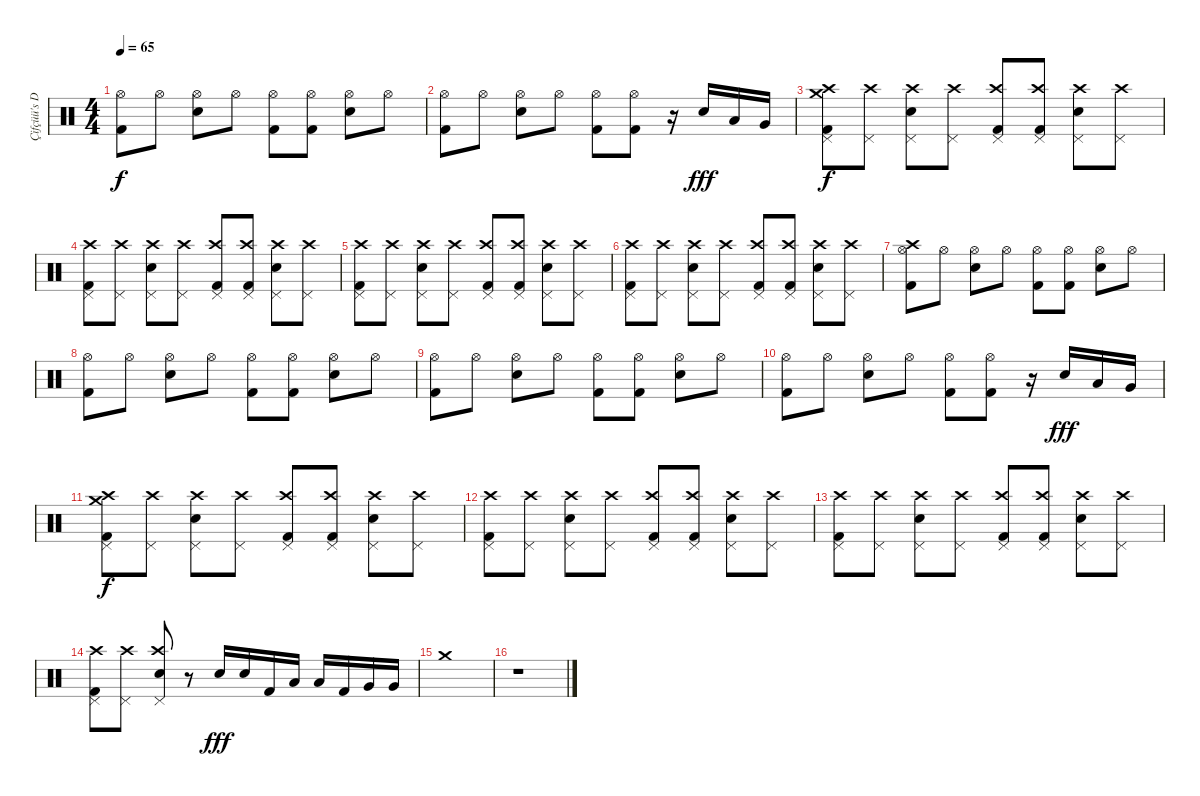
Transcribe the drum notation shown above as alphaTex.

\track ("Çifçüü's Drum" "Çifçüü's D") {instrument percussion}
\staff {score}
\articulation defaults
\ts (4 4)
\tempo 65
\clef neutral
\ks c
("Hi-Hat (open)" "Kick (hit) 2").8{dy f} "Hi-Hat (open)".8 ("Hi-Hat (open)" "Snare (hit) 2").8 "Hi-Hat (open)".8 ("Hi-Hat (open)" "Kick (hit) 2").8 ("Hi-Hat (open)" "Kick (hit) 2").8 ("Hi-Hat (open)" "Snare (hit) 2").8 "Hi-Hat (open)".8 |
("Hi-Hat (open)" "Kick (hit) 2").8 "Hi-Hat (open)".8 ("Hi-Hat (open)" "Snare (hit) 2").8 "Hi-Hat (open)".8 ("Hi-Hat (open)" "Kick (hit) 2").8 ("Hi-Hat (open)" "Kick (hit) 2").8 r.16 "Electric Snare (hit)".16{dy fff} "Low Tom (hit)".16 "Very Low Tom (hit)".16 |
("Crash high (hit)" "Crash medium (hit)" "Pedal Hi-Hat (hit)" "Kick (hit) 2").8{dy f} ("Crash high (hit)" "Pedal Hi-Hat (hit)").8 ("Crash high (hit)" "Pedal Hi-Hat (hit)" "Snare (hit) 2").8 ("Crash high (hit)" "Pedal Hi-Hat (hit)").8 ("Crash high (hit)" "Pedal Hi-Hat (hit)" "Kick (hit) 2").8 ("Crash high (hit)" "Pedal Hi-Hat (hit)" "Kick (hit) 2").8 ("Crash high (hit)" "Pedal Hi-Hat (hit)" "Snare (hit) 2").8 ("Crash high (hit)" "Pedal Hi-Hat (hit)").8 |
("Crash high (hit)" "Pedal Hi-Hat (hit)" "Kick (hit) 2").8 ("Crash high (hit)" "Pedal Hi-Hat (hit)").8 ("Crash high (hit)" "Pedal Hi-Hat (hit)" "Snare (hit) 2").8 ("Crash high (hit)" "Pedal Hi-Hat (hit)").8 ("Crash high (hit)" "Pedal Hi-Hat (hit)" "Kick (hit) 2").8 ("Crash high (hit)" "Pedal Hi-Hat (hit)" "Kick (hit) 2").8 ("Crash high (hit)" "Pedal Hi-Hat (hit)" "Snare (hit) 2").8 ("Crash high (hit)" "Pedal Hi-Hat (hit)").8 |
("Crash high (hit)" "Pedal Hi-Hat (hit)" "Kick (hit) 2").8 ("Crash high (hit)" "Pedal Hi-Hat (hit)").8 ("Crash high (hit)" "Pedal Hi-Hat (hit)" "Snare (hit) 2").8 ("Crash high (hit)" "Pedal Hi-Hat (hit)").8 ("Crash high (hit)" "Pedal Hi-Hat (hit)" "Kick (hit) 2").8 ("Crash high (hit)" "Pedal Hi-Hat (hit)" "Kick (hit) 2").8 ("Crash high (hit)" "Pedal Hi-Hat (hit)" "Snare (hit) 2").8 ("Crash high (hit)" "Pedal Hi-Hat (hit)").8 |
("Crash high (hit)" "Pedal Hi-Hat (hit)" "Kick (hit) 2").8 ("Crash high (hit)" "Pedal Hi-Hat (hit)").8 ("Crash high (hit)" "Pedal Hi-Hat (hit)" "Snare (hit) 2").8 ("Crash high (hit)" "Pedal Hi-Hat (hit)").8 ("Crash high (hit)" "Pedal Hi-Hat (hit)" "Kick (hit) 2").8 ("Crash high (hit)" "Pedal Hi-Hat (hit)" "Kick (hit) 2").8 ("Crash high (hit)" "Pedal Hi-Hat (hit)" "Snare (hit) 2").8 ("Crash high (hit)" "Pedal Hi-Hat (hit)").8 |
("Crash high (hit)" "Hi-Hat (open)" "Kick (hit) 2").8 "Hi-Hat (open)".8 ("Hi-Hat (open)" "Snare (hit) 2").8 "Hi-Hat (open)".8 ("Hi-Hat (open)" "Kick (hit) 2").8 ("Hi-Hat (open)" "Kick (hit) 2").8 ("Hi-Hat (open)" "Snare (hit) 2").8 "Hi-Hat (open)".8 |
("Hi-Hat (open)" "Kick (hit) 2").8 "Hi-Hat (open)".8 ("Hi-Hat (open)" "Snare (hit) 2").8 "Hi-Hat (open)".8 ("Hi-Hat (open)" "Kick (hit) 2").8 ("Hi-Hat (open)" "Kick (hit) 2").8 ("Hi-Hat (open)" "Snare (hit) 2").8 "Hi-Hat (open)".8 |
("Hi-Hat (open)" "Kick (hit) 2").8 "Hi-Hat (open)".8 ("Hi-Hat (open)" "Snare (hit) 2").8 "Hi-Hat (open)".8 ("Hi-Hat (open)" "Kick (hit) 2").8 ("Hi-Hat (open)" "Kick (hit) 2").8 ("Hi-Hat (open)" "Snare (hit) 2").8 "Hi-Hat (open)".8 |
("Hi-Hat (open)" "Kick (hit) 2").8 "Hi-Hat (open)".8 ("Hi-Hat (open)" "Snare (hit) 2").8 "Hi-Hat (open)".8 ("Hi-Hat (open)" "Kick (hit) 2").8 ("Hi-Hat (open)" "Kick (hit) 2").8 r.16 "Electric Snare (hit)".16{dy fff} "Low Tom (hit)".16 "Very Low Tom (hit)".16 |
("Crash high (hit)" "Crash medium (hit)" "Pedal Hi-Hat (hit)" "Kick (hit) 2").8{dy f} ("Crash high (hit)" "Pedal Hi-Hat (hit)").8 ("Crash high (hit)" "Pedal Hi-Hat (hit)" "Snare (hit) 2").8 ("Crash high (hit)" "Pedal Hi-Hat (hit)").8 ("Crash high (hit)" "Pedal Hi-Hat (hit)" "Kick (hit) 2").8 ("Crash high (hit)" "Pedal Hi-Hat (hit)" "Kick (hit) 2").8 ("Crash high (hit)" "Pedal Hi-Hat (hit)" "Snare (hit) 2").8 ("Crash high (hit)" "Pedal Hi-Hat (hit)").8 |
("Crash high (hit)" "Pedal Hi-Hat (hit)" "Kick (hit) 2").8 ("Crash high (hit)" "Pedal Hi-Hat (hit)").8 ("Crash high (hit)" "Pedal Hi-Hat (hit)" "Snare (hit) 2").8 ("Crash high (hit)" "Pedal Hi-Hat (hit)").8 ("Crash high (hit)" "Pedal Hi-Hat (hit)" "Kick (hit) 2").8 ("Crash high (hit)" "Pedal Hi-Hat (hit)" "Kick (hit) 2").8 ("Crash high (hit)" "Pedal Hi-Hat (hit)" "Snare (hit) 2").8 ("Crash high (hit)" "Pedal Hi-Hat (hit)").8 |
("Crash high (hit)" "Pedal Hi-Hat (hit)" "Kick (hit) 2").8 ("Crash high (hit)" "Pedal Hi-Hat (hit)").8 ("Crash high (hit)" "Pedal Hi-Hat (hit)" "Snare (hit) 2").8 ("Crash high (hit)" "Pedal Hi-Hat (hit)").8 ("Crash high (hit)" "Pedal Hi-Hat (hit)" "Kick (hit) 2").8 ("Crash high (hit)" "Pedal Hi-Hat (hit)" "Kick (hit) 2").8 ("Crash high (hit)" "Pedal Hi-Hat (hit)" "Snare (hit) 2").8 ("Crash high (hit)" "Pedal Hi-Hat (hit)").8 |
("Crash high (hit)" "Pedal Hi-Hat (hit)" "Kick (hit) 2").8 ("Crash high (hit)" "Pedal Hi-Hat (hit)").8 ("Crash high (hit)" "Pedal Hi-Hat (hit)" "Snare (hit) 2").8 r.8 "Electric Snare (hit)".16{dy fff} "Electric Snare (hit)".16 "Kick (hit) 2".16 "Low Tom (hit)".16 "Low Tom (hit)".16 "Kick (hit) 2".16 "Very Low Tom (hit)".16 "Very Low Tom (hit)".16 |
"Crash medium (hit)".1 |
r.1
